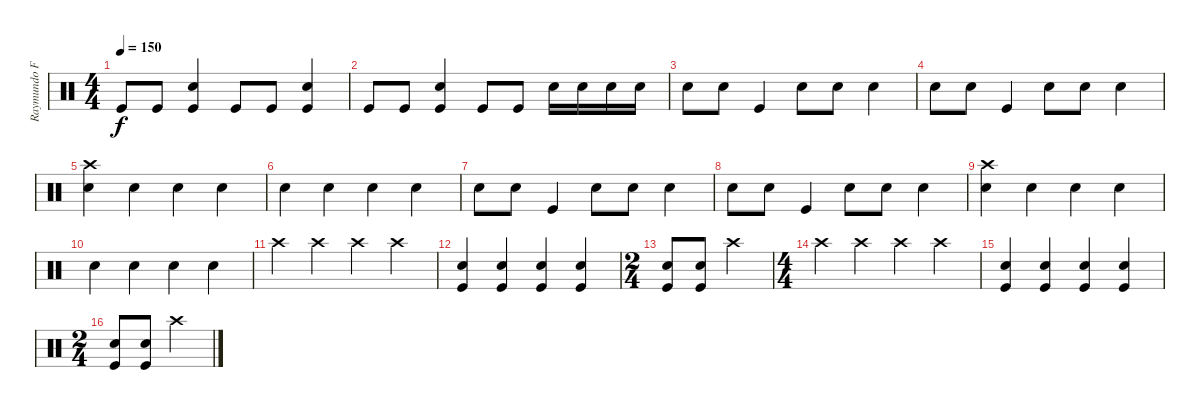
\track ("Raymundo Fajardo" "Raymundo F") {instrument percussion}
\staff {score}
\articulation defaults
\ts (4 4)
\tempo 150
\clef neutral
\ks c "Kick (hit)".8{dy f} "Kick (hit)".8
("Kick (hit)" "Electric Snare (hit)").4 "Kick (hit)".8 "Kick (hit)".8 ("Kick (hit)" "Electric Snare (hit)").4 |
"Kick (hit)".8 "Kick (hit)".8 ("Kick (hit)" "Electric Snare (hit)").4 "Kick (hit)".8 "Kick (hit)".8 "Electric Snare (hit)".16 "Electric Snare (hit)".16 "Electric Snare (hit)".16 "Electric Snare (hit)".16 |
"Electric Snare (hit)".8 "Electric Snare (hit)".8 "Kick (hit)".4 "Electric Snare (hit)".8 "Electric Snare (hit)".8 "Electric Snare (hit)".4 |
"Electric Snare (hit)".8 "Electric Snare (hit)".8 "Kick (hit)".4 "Electric Snare (hit)".8 "Electric Snare (hit)".8 "Electric Snare (hit)".4 |
("Crash high (hit)" "Electric Snare (hit)").4 "Snare (hit) 2".4 "Electric Snare (hit)".4 "Snare (hit) 2".4 |
"Electric Snare (hit)".4 "Snare (hit) 2".4 "Electric Snare (hit)".4 "Snare (hit) 2".4 |
"Electric Snare (hit)".8 "Electric Snare (hit)".8 "Kick (hit)".4 "Electric Snare (hit)".8 "Electric Snare (hit)".8 "Electric Snare (hit)".4 |
"Electric Snare (hit)".8 "Electric Snare (hit)".8 "Kick (hit)".4 "Electric Snare (hit)".8 "Electric Snare (hit)".8 "Electric Snare (hit)".4 |
("Crash high (hit)" "Electric Snare (hit)").4 "Snare (hit) 2".4 "Electric Snare (hit)".4 "Snare (hit) 2".4 |
"Electric Snare (hit)".4 "Snare (hit) 2".4 "Electric Snare (hit)".4 "Snare (hit) 2".4 |
"Crash high (hit)".4 "Crash high (hit)".4 "Crash high (hit)".4 "Crash high (hit)".4 |
("Snare (hit) 2" "Kick (hit)").4 ("Snare (hit) 2" "Kick (hit)").4 ("Snare (hit) 2" "Kick (hit)").4 ("Snare (hit) 2" "Kick (hit)").4 |
\ts (2 4)
("Snare (hit) 2" "Kick (hit)").8 ("Snare (hit) 2" "Kick (hit)").8 "Crash high (hit)".4 |
\ts (4 4)
"Crash high (hit)".4 "Crash high (hit)".4 "Crash high (hit)".4 "Crash high (hit)".4 |
("Snare (hit) 2" "Kick (hit)").4 ("Snare (hit) 2" "Kick (hit)").4 ("Snare (hit) 2" "Kick (hit)").4 ("Snare (hit) 2" "Kick (hit)").4 |
\ts (2 4)
("Snare (hit) 2" "Kick (hit)").8 ("Snare (hit) 2" "Kick (hit)").8 "Crash high (hit)".4
